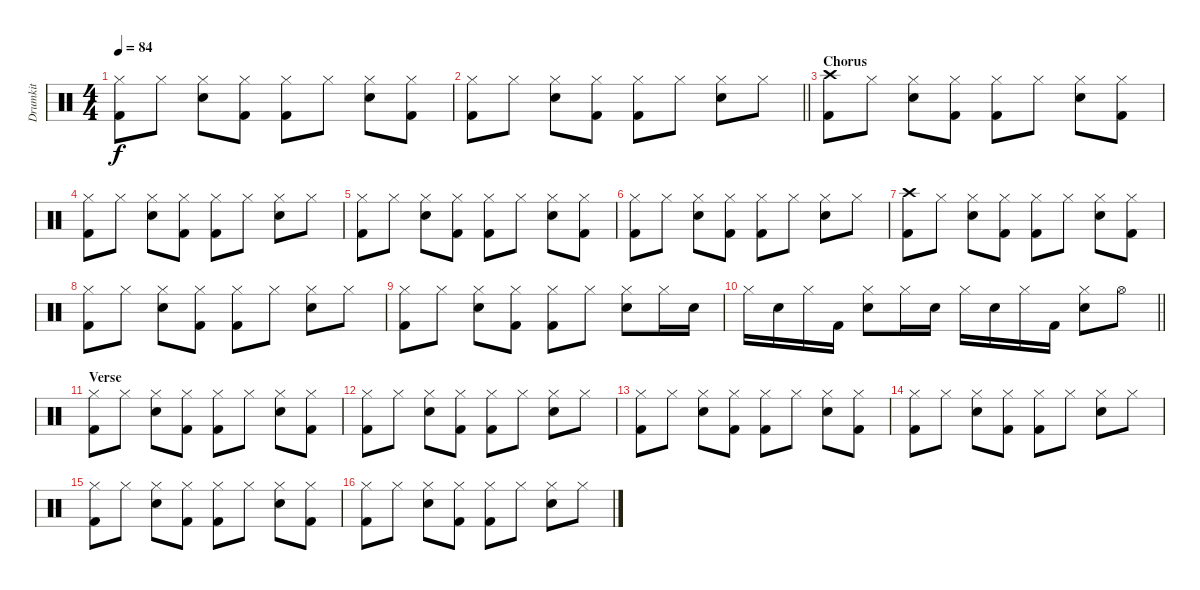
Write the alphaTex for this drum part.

\track ("Drumkit" "Drumkit") {instrument percussion}
\staff {score}
\articulation defaults
\ts (4 4)
\tempo 84
\clef neutral
\ks c
("Kick (hit) 2" "Hi-Hat (closed)").8{dy f} "Hi-Hat (closed)".8 ("Hi-Hat (closed)" "Snare (hit) 2").8 ("Hi-Hat (closed)" "Kick (hit) 2").8 ("Kick (hit) 2" "Hi-Hat (closed)").8 "Hi-Hat (closed)".8 ("Hi-Hat (closed)" "Snare (hit) 2").8 ("Hi-Hat (closed)" "Kick (hit) 2").8 |
\barLineRight lightlight
("Kick (hit) 2" "Hi-Hat (closed)").8 "Hi-Hat (closed)".8 ("Hi-Hat (closed)" "Snare (hit) 2").8 ("Hi-Hat (closed)" "Kick (hit) 2").8 ("Kick (hit) 2" "Hi-Hat (closed)").8 "Hi-Hat (closed)".8 ("Hi-Hat (closed)" "Snare (hit) 2").8 "Hi-Hat (closed)".8 |
\section ("" "Chorus")
("Kick (hit) 2" "Crash high (hit)").8 "Hi-Hat (closed)".8 ("Hi-Hat (closed)" "Snare (hit) 2").8 ("Hi-Hat (closed)" "Kick (hit) 2").8 ("Kick (hit) 2" "Hi-Hat (closed)").8 "Hi-Hat (closed)".8 ("Hi-Hat (closed)" "Snare (hit) 2").8 ("Hi-Hat (closed)" "Kick (hit) 2").8 |
("Kick (hit) 2" "Hi-Hat (closed)").8 "Hi-Hat (closed)".8 ("Hi-Hat (closed)" "Snare (hit) 2").8 ("Hi-Hat (closed)" "Kick (hit) 2").8 ("Kick (hit) 2" "Hi-Hat (closed)").8 "Hi-Hat (closed)".8 ("Hi-Hat (closed)" "Snare (hit) 2").8 "Hi-Hat (closed)".8 |
("Kick (hit) 2" "Hi-Hat (closed)").8 "Hi-Hat (closed)".8 ("Hi-Hat (closed)" "Snare (hit) 2").8 ("Hi-Hat (closed)" "Kick (hit) 2").8 ("Kick (hit) 2" "Hi-Hat (closed)").8 "Hi-Hat (closed)".8 ("Hi-Hat (closed)" "Snare (hit) 2").8 ("Hi-Hat (closed)" "Kick (hit) 2").8 |
("Kick (hit) 2" "Hi-Hat (closed)").8 "Hi-Hat (closed)".8 ("Hi-Hat (closed)" "Snare (hit) 2").8 ("Hi-Hat (closed)" "Kick (hit) 2").8 ("Kick (hit) 2" "Hi-Hat (closed)").8 "Hi-Hat (closed)".8 ("Hi-Hat (closed)" "Snare (hit) 2").8 "Hi-Hat (closed)".8 |
("Kick (hit) 2" "Crash high (hit)").8 "Hi-Hat (closed)".8 ("Hi-Hat (closed)" "Snare (hit) 2").8 ("Hi-Hat (closed)" "Kick (hit) 2").8 ("Kick (hit) 2" "Hi-Hat (closed)").8 "Hi-Hat (closed)".8 ("Hi-Hat (closed)" "Snare (hit) 2").8 ("Hi-Hat (closed)" "Kick (hit) 2").8 |
("Kick (hit) 2" "Hi-Hat (closed)").8 "Hi-Hat (closed)".8 ("Hi-Hat (closed)" "Snare (hit) 2").8 ("Hi-Hat (closed)" "Kick (hit) 2").8 ("Kick (hit) 2" "Hi-Hat (closed)").8 "Hi-Hat (closed)".8 ("Hi-Hat (closed)" "Snare (hit) 2").8 "Hi-Hat (closed)".8 |
("Kick (hit) 2" "Hi-Hat (closed)").8 "Hi-Hat (closed)".8 ("Hi-Hat (closed)" "Snare (hit) 2").8 ("Hi-Hat (closed)" "Kick (hit) 2").8 ("Kick (hit) 2" "Hi-Hat (closed)").8 "Hi-Hat (closed)".8 ("Hi-Hat (closed)" "Snare (hit) 2").8 "Hi-Hat (closed)".16 "Snare (hit) 2".16 |
\barLineRight lightlight "Hi-Hat (closed)".16 "Snare (hit) 2".16 "Hi-Hat (closed)".16 "Kick (hit) 2".16
("Hi-Hat (closed)" "Snare (hit) 2").8 "Hi-Hat (closed)".16 "Snare (hit) 2".16 "Hi-Hat (closed)".16 "Snare (hit) 2".16 "Hi-Hat (closed)".16 "Kick (hit) 2".16 ("Hi-Hat (closed)" "Snare (hit) 2").8 "Hi-Hat (open)".8 |
\section ("" "Verse")
("Kick (hit) 2" "Hi-Hat (closed)").8 "Hi-Hat (closed)".8 ("Hi-Hat (closed)" "Snare (hit) 2").8 ("Hi-Hat (closed)" "Kick (hit) 2").8 ("Kick (hit) 2" "Hi-Hat (closed)").8 "Hi-Hat (closed)".8 ("Hi-Hat (closed)" "Snare (hit) 2").8 ("Hi-Hat (closed)" "Kick (hit) 2").8 |
("Kick (hit) 2" "Hi-Hat (closed)").8 "Hi-Hat (closed)".8 ("Hi-Hat (closed)" "Snare (hit) 2").8 ("Hi-Hat (closed)" "Kick (hit) 2").8 ("Kick (hit) 2" "Hi-Hat (closed)").8 "Hi-Hat (closed)".8 ("Hi-Hat (closed)" "Snare (hit) 2").8 "Hi-Hat (closed)".8 |
("Kick (hit) 2" "Hi-Hat (closed)").8 "Hi-Hat (closed)".8 ("Hi-Hat (closed)" "Snare (hit) 2").8 ("Hi-Hat (closed)" "Kick (hit) 2").8 ("Kick (hit) 2" "Hi-Hat (closed)").8 "Hi-Hat (closed)".8 ("Hi-Hat (closed)" "Snare (hit) 2").8 ("Hi-Hat (closed)" "Kick (hit) 2").8 |
("Kick (hit) 2" "Hi-Hat (closed)").8 "Hi-Hat (closed)".8 ("Hi-Hat (closed)" "Snare (hit) 2").8 ("Hi-Hat (closed)" "Kick (hit) 2").8 ("Kick (hit) 2" "Hi-Hat (closed)").8 "Hi-Hat (closed)".8 ("Hi-Hat (closed)" "Snare (hit) 2").8 "Hi-Hat (closed)".8 |
("Kick (hit) 2" "Hi-Hat (closed)").8 "Hi-Hat (closed)".8 ("Hi-Hat (closed)" "Snare (hit) 2").8 ("Hi-Hat (closed)" "Kick (hit) 2").8 ("Kick (hit) 2" "Hi-Hat (closed)").8 "Hi-Hat (closed)".8 ("Hi-Hat (closed)" "Snare (hit) 2").8 ("Hi-Hat (closed)" "Kick (hit) 2").8 |
("Kick (hit) 2" "Hi-Hat (closed)").8 "Hi-Hat (closed)".8 ("Hi-Hat (closed)" "Snare (hit) 2").8 ("Hi-Hat (closed)" "Kick (hit) 2").8 ("Kick (hit) 2" "Hi-Hat (closed)").8 "Hi-Hat (closed)".8 ("Hi-Hat (closed)" "Snare (hit) 2").8 "Hi-Hat (closed)".8
